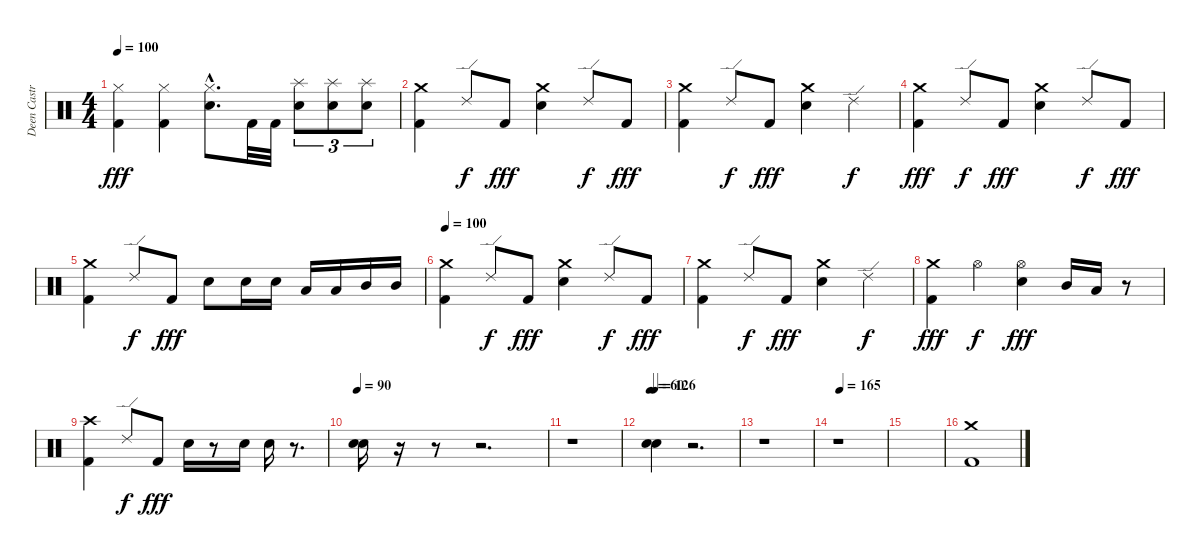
\track ("Deen Castronovo" "Deen Castr") {instrument percussion}
\staff {score}
\articulation defaults
\ts (4 4)
\tempo 100
\clef neutral
\ks c
("Kick (hit) 2" "Hi-Hat (closed)").4{dy fff} ("Kick (hit) 2" "Hi-Hat (closed)").4 ("Electric Snare (hit)"{hac} "Hi-Hat (closed)"{hac}).8{d} "Kick (hit) 2".32 "Kick (hit) 2".32 ("Electric Snare (hit)" "Splash (hit)").8{tu (3 2)} ("Electric Snare (hit)" "Splash (hit)").8{tu (3 2)} ("Electric Snare (hit)" "Splash (hit)").8{tu (3 2)} |
("Kick (hit) 2" "Crash medium (hit)").4 "Ride (edge) 2".8{dy f} "Kick (hit) 2".8{dy fff} ("Electric Snare (hit)" "Crash medium (hit)").4 "Ride (edge) 2".8{dy f} "Kick (hit) 2".8{dy fff} |
("Kick (hit) 2" "Crash medium (hit)").4 "Ride (edge) 2".8{dy f} "Kick (hit) 2".8{dy fff} ("Electric Snare (hit)" "Crash medium (hit)").4 "Ride (edge) 2".4{dy f} |
("Kick (hit) 2" "Crash medium (hit)").4{dy fff} "Ride (edge) 2".8{dy f} "Kick (hit) 2".8{dy fff} ("Electric Snare (hit)" "Crash medium (hit)").4 "Ride (edge) 2".8{dy f} "Kick (hit) 2".8{dy fff} |
("Kick (hit) 2" "Crash medium (hit)").4 "Ride (edge) 2".8{dy f} "Kick (hit) 2".8{dy fff} "Electric Snare (hit)".8 "Electric Snare (hit)".16 "Electric Snare (hit)".16 "Low Tom (hit)".16 "Low Tom (hit)".16 "Mid Tom (hit)".16 "Mid Tom (hit)".16 |
\tempo 100
("Kick (hit) 2" "Crash medium (hit)").4 "Ride (edge) 2".8{dy f} "Kick (hit) 2".8{dy fff} ("Electric Snare (hit)" "Crash medium (hit)").4 "Ride (edge) 2".8{dy f} "Kick (hit) 2".8{dy fff} |
("Kick (hit) 2" "Crash medium (hit)").4 "Ride (edge) 2".8{dy f} "Kick (hit) 2".8{dy fff} ("Electric Snare (hit)" "Crash medium (hit)").4 "Ride (edge) 2".4{dy f} |
("Kick (hit) 2" "Crash medium (hit)").4{dy fff} "Hi-Hat (open)".4{dy f} ("Electric Snare (hit)" "Hi-Hat (open)").4{dy fff} "Mid Tom (hit)".16 "Low Tom (hit)".16 r.8 |
("Kick (hit) 2" "Crash high (hit)").4 "Ride (edge) 2".8{dy f} "Kick (hit) 2".8{dy fff} "Electric Snare (hit)".16 r.8 "Electric Snare (hit)".16 "Electric Snare (hit)".16 r.8{d} |
\tempo 90
("Electric Snare (hit)" "Electric Snare (hit)").16 r.16 r.8 r.2{d} |
r.1 |
\tempo 60
\tempo (126 0.05)
("Electric Snare (hit)" "Electric Snare (hit)").4 r.2{d} |
r.1 |
\tempo (165 0.05)
r.1 |
|
("Kick (hit) 2" "Crash medium (hit)").1
